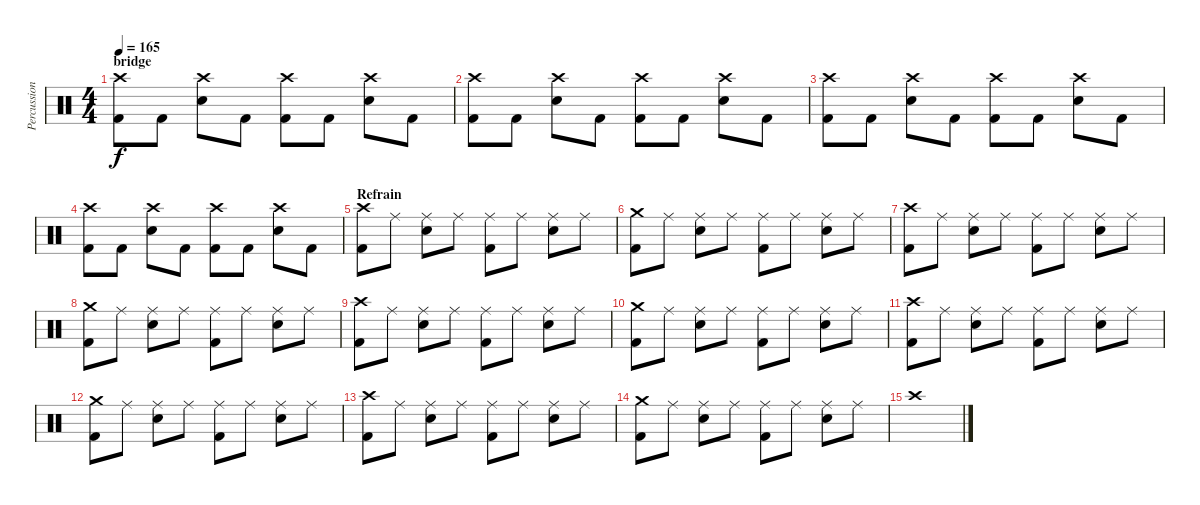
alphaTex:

\track ("Percussion" "Percussion") {instrument percussion}
\staff {score}
\articulation defaults
\ts (4 4)
\section ("" "bridge")
\tempo 165
\clef neutral
\ks c
("Crash high (hit)" "Kick (hit) 2").8{dy f} "Kick (hit) 2".8 ("Crash high (hit)" "Electric Snare (hit)").8 "Kick (hit) 2".8 ("Crash high (hit)" "Kick (hit) 2").8 "Kick (hit) 2".8 ("Crash high (hit)" "Electric Snare (hit)").8 "Kick (hit) 2".8 |
("Crash high (hit)" "Kick (hit) 2").8 "Kick (hit) 2".8 ("Crash high (hit)" "Electric Snare (hit)").8 "Kick (hit) 2".8 ("Crash high (hit)" "Kick (hit) 2").8 "Kick (hit) 2".8 ("Crash high (hit)" "Electric Snare (hit)").8 "Kick (hit) 2".8 |
("Crash high (hit)" "Kick (hit) 2").8 "Kick (hit) 2".8 ("Crash high (hit)" "Electric Snare (hit)").8 "Kick (hit) 2".8 ("Crash high (hit)" "Kick (hit) 2").8 "Kick (hit) 2".8 ("Crash high (hit)" "Electric Snare (hit)").8 "Kick (hit) 2".8 |
("Crash high (hit)" "Kick (hit) 2").8 "Kick (hit) 2".8 ("Crash high (hit)" "Electric Snare (hit)").8 "Kick (hit) 2".8 ("Crash high (hit)" "Kick (hit) 2").8 "Kick (hit) 2".8 ("Crash high (hit)" "Electric Snare (hit)").8 "Kick (hit) 2".8 |
\section ("" "Refrain")
("Crash high (hit)" "Kick (hit) 2").8 "Ride (middle)".8 ("Ride (middle)" "Electric Snare (hit)").8 "Ride (middle)".8 ("Ride (middle)" "Kick (hit) 2").8 "Ride (middle)".8 ("Ride (middle)" "Electric Snare (hit)").8 "Ride (middle)".8 |
("Crash medium (hit)" "Kick (hit) 2").8 "Ride (middle)".8 ("Ride (middle)" "Electric Snare (hit)").8 "Ride (middle)".8 ("Ride (middle)" "Kick (hit) 2").8 "Ride (middle)".8 ("Ride (middle)" "Electric Snare (hit)").8 "Ride (middle)".8 |
("Crash high (hit)" "Kick (hit) 2").8 "Ride (middle)".8 ("Ride (middle)" "Electric Snare (hit)").8 "Ride (middle)".8 ("Ride (middle)" "Kick (hit) 2").8 "Ride (middle)".8 ("Ride (middle)" "Electric Snare (hit)").8 "Ride (middle)".8 |
("Crash medium (hit)" "Kick (hit) 2").8 "Ride (middle)".8 ("Ride (middle)" "Electric Snare (hit)").8 "Ride (middle)".8 ("Ride (middle)" "Kick (hit) 2").8 "Ride (middle)".8 ("Ride (middle)" "Electric Snare (hit)").8 "Ride (middle)".8 |
("Crash high (hit)" "Kick (hit) 2").8 "Ride (middle)".8 ("Ride (middle)" "Electric Snare (hit)").8 "Ride (middle)".8 ("Ride (middle)" "Kick (hit) 2").8 "Ride (middle)".8 ("Ride (middle)" "Electric Snare (hit)").8 "Ride (middle)".8 |
("Crash medium (hit)" "Kick (hit) 2").8 "Ride (middle)".8 ("Ride (middle)" "Electric Snare (hit)").8 "Ride (middle)".8 ("Ride (middle)" "Kick (hit) 2").8 "Ride (middle)".8 ("Ride (middle)" "Electric Snare (hit)").8 "Ride (middle)".8 |
("Crash high (hit)" "Kick (hit) 2").8 "Ride (middle)".8 ("Ride (middle)" "Electric Snare (hit)").8 "Ride (middle)".8 ("Ride (middle)" "Kick (hit) 2").8 "Ride (middle)".8 ("Ride (middle)" "Electric Snare (hit)").8 "Ride (middle)".8 |
("Crash medium (hit)" "Kick (hit) 2").8 "Ride (middle)".8 ("Ride (middle)" "Electric Snare (hit)").8 "Ride (middle)".8 ("Ride (middle)" "Kick (hit) 2").8 "Ride (middle)".8 ("Ride (middle)" "Electric Snare (hit)").8 "Ride (middle)".8 |
("Crash high (hit)" "Kick (hit) 2").8 "Ride (middle)".8 ("Ride (middle)" "Electric Snare (hit)").8 "Ride (middle)".8 ("Ride (middle)" "Kick (hit) 2").8 "Ride (middle)".8 ("Ride (middle)" "Electric Snare (hit)").8 "Ride (middle)".8 |
("Crash medium (hit)" "Kick (hit) 2").8 "Ride (middle)".8 ("Ride (middle)" "Electric Snare (hit)").8 "Ride (middle)".8 ("Ride (middle)" "Kick (hit) 2").8 "Ride (middle)".8 ("Ride (middle)" "Electric Snare (hit)").8 "Ride (middle)".8 |
"Crash high (hit)".1
